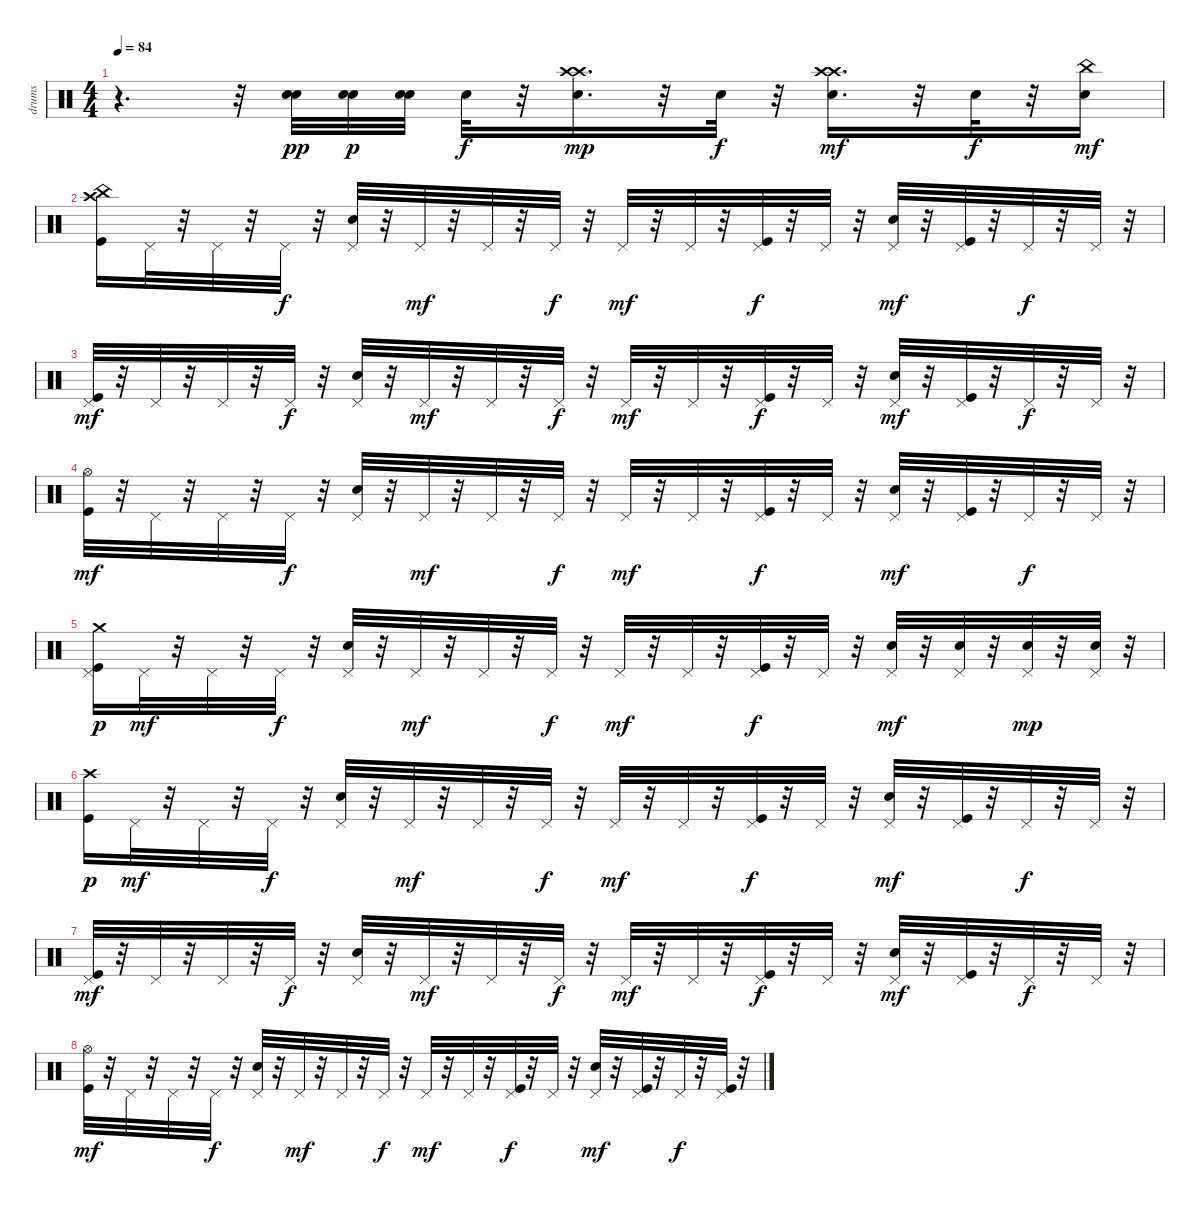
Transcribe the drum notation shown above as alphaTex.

\track ("drums" "drums") {instrument percussion}
\staff {score}
\articulation defaults
\ts (4 4)
\tempo 84
\clef neutral
\ks c
r.4{d dy mf} r.32 ("Snare (hit) 2" "Snare (hit) 2").32{dy pp} ("Snare (hit) 2" "Snare (hit) 2").32{dy p} ("Snare (hit) 2" "Snare (hit) 2").32 "Snare (hit) 2".32{dy f} r.32 ("Snare (hit) 2" "Crash high (hit)" "Crash high (hit)").16{d dy mp} r.32 "Snare (hit) 2".32{dy f} r.32 ("Snare (hit) 2" "Crash high (hit)" "Crash high (hit)").16{d dy mf} r.32 "Snare (hit) 2".32{dy f} r.32 ("Snare (hit) 2" "China (hit)").16{dy mf} |
("Kick (hit)" "Crash high (hit)" "China (hit)").16 "Pedal Hi-Hat (hit)".32 r.32 "Pedal Hi-Hat (hit)".32 r.32 "Pedal Hi-Hat (hit)".32{dy f} r.32 ("Snare (hit) 2" "Pedal Hi-Hat (hit)").32 r.32 "Pedal Hi-Hat (hit)".32{dy mf} r.32 "Pedal Hi-Hat (hit)".32 r.32 "Pedal Hi-Hat (hit)".32{dy f} r.32 "Pedal Hi-Hat (hit)".32{dy mf} r.32 "Pedal Hi-Hat (hit)".32 r.32 ("Kick (hit)" "Pedal Hi-Hat (hit)").32{dy f} r.32 "Pedal Hi-Hat (hit)".32 r.32 ("Snare (hit) 2" "Pedal Hi-Hat (hit)").32{dy mf} r.32 ("Kick (hit)" "Pedal Hi-Hat (hit)").32 r.32 "Pedal Hi-Hat (hit)".32{dy f} r.32 "Pedal Hi-Hat (hit)".32 r.32 |
("Kick (hit)" "Pedal Hi-Hat (hit)").32{dy mf} r.32 "Pedal Hi-Hat (hit)".32 r.32 "Pedal Hi-Hat (hit)".32 r.32 "Pedal Hi-Hat (hit)".32{dy f} r.32 ("Snare (hit) 2" "Pedal Hi-Hat (hit)").32 r.32 "Pedal Hi-Hat (hit)".32{dy mf} r.32 "Pedal Hi-Hat (hit)".32 r.32 "Pedal Hi-Hat (hit)".32{dy f} r.32 "Pedal Hi-Hat (hit)".32{dy mf} r.32 "Pedal Hi-Hat (hit)".32 r.32 ("Kick (hit)" "Pedal Hi-Hat (hit)").32{dy f} r.32 "Pedal Hi-Hat (hit)".32 r.32 ("Snare (hit) 2" "Pedal Hi-Hat (hit)").32{dy mf} r.32 ("Kick (hit)" "Pedal Hi-Hat (hit)").32 r.32 "Pedal Hi-Hat (hit)".32{dy f} r.32 "Pedal Hi-Hat (hit)".32 r.32 |
("Kick (hit)" "Hi-Hat (open)").32{dy mf} r.32 "Pedal Hi-Hat (hit)".32 r.32 "Pedal Hi-Hat (hit)".32 r.32 "Pedal Hi-Hat (hit)".32{dy f} r.32 ("Snare (hit) 2" "Pedal Hi-Hat (hit)").32 r.32 "Pedal Hi-Hat (hit)".32{dy mf} r.32 "Pedal Hi-Hat (hit)".32 r.32 "Pedal Hi-Hat (hit)".32{dy f} r.32 "Pedal Hi-Hat (hit)".32{dy mf} r.32 "Pedal Hi-Hat (hit)".32 r.32 ("Kick (hit)" "Pedal Hi-Hat (hit)").32{dy f} r.32 "Pedal Hi-Hat (hit)".32 r.32 ("Snare (hit) 2" "Pedal Hi-Hat (hit)").32{dy mf} r.32 ("Kick (hit)" "Pedal Hi-Hat (hit)").32 r.32 "Pedal Hi-Hat (hit)".32{dy f} r.32 "Pedal Hi-Hat (hit)".32 r.32 |
("Kick (hit)" "Pedal Hi-Hat (hit)" "Crash medium (hit)").16{dy p} "Pedal Hi-Hat (hit)".32{dy mf} r.32 "Pedal Hi-Hat (hit)".32 r.32 "Pedal Hi-Hat (hit)".32{dy f} r.32 ("Snare (hit) 2" "Pedal Hi-Hat (hit)").32 r.32 "Pedal Hi-Hat (hit)".32{dy mf} r.32 "Pedal Hi-Hat (hit)".32 r.32 "Pedal Hi-Hat (hit)".32{dy f} r.32 "Pedal Hi-Hat (hit)".32{dy mf} r.32 "Pedal Hi-Hat (hit)".32 r.32 ("Kick (hit)" "Pedal Hi-Hat (hit)").32{dy f} r.32 "Pedal Hi-Hat (hit)".32 r.32 ("Snare (hit) 2" "Pedal Hi-Hat (hit)").32{dy mf} r.32 ("Snare (hit) 2" "Pedal Hi-Hat (hit)").32 r.32 ("Snare (hit) 2" "Pedal Hi-Hat (hit)").32{dy mp} r.32 ("Snare (hit) 2" "Pedal Hi-Hat (hit)").32 r.32 |
("Kick (hit)" "Crash high (hit)").16{dy p} "Pedal Hi-Hat (hit)".32{dy mf} r.32 "Pedal Hi-Hat (hit)".32 r.32 "Pedal Hi-Hat (hit)".32{dy f} r.32 ("Snare (hit) 2" "Pedal Hi-Hat (hit)").32 r.32 "Pedal Hi-Hat (hit)".32{dy mf} r.32 "Pedal Hi-Hat (hit)".32 r.32 "Pedal Hi-Hat (hit)".32{dy f} r.32 "Pedal Hi-Hat (hit)".32{dy mf} r.32 "Pedal Hi-Hat (hit)".32 r.32 ("Kick (hit)" "Pedal Hi-Hat (hit)").32{dy f} r.32 "Pedal Hi-Hat (hit)".32 r.32 ("Snare (hit) 2" "Pedal Hi-Hat (hit)").32{dy mf} r.32 ("Kick (hit)" "Pedal Hi-Hat (hit)").32 r.32 "Pedal Hi-Hat (hit)".32{dy f} r.32 "Pedal Hi-Hat (hit)".32 r.32 |
("Kick (hit)" "Pedal Hi-Hat (hit)").32{dy mf} r.32 "Pedal Hi-Hat (hit)".32 r.32 "Pedal Hi-Hat (hit)".32 r.32 "Pedal Hi-Hat (hit)".32{dy f} r.32 ("Snare (hit) 2" "Pedal Hi-Hat (hit)").32 r.32 "Pedal Hi-Hat (hit)".32{dy mf} r.32 "Pedal Hi-Hat (hit)".32 r.32 "Pedal Hi-Hat (hit)".32{dy f} r.32 "Pedal Hi-Hat (hit)".32{dy mf} r.32 "Pedal Hi-Hat (hit)".32 r.32 ("Kick (hit)" "Pedal Hi-Hat (hit)").32{dy f} r.32 "Pedal Hi-Hat (hit)".32 r.32 ("Snare (hit) 2" "Pedal Hi-Hat (hit)").32{dy mf} r.32 ("Kick (hit)" "Pedal Hi-Hat (hit)").32 r.32 "Pedal Hi-Hat (hit)".32{dy f} r.32 "Pedal Hi-Hat (hit)".32 r.32 |
("Kick (hit)" "Hi-Hat (open)").32{dy mf} r.32 "Pedal Hi-Hat (hit)".32 r.32 "Pedal Hi-Hat (hit)".32 r.32 "Pedal Hi-Hat (hit)".32{dy f} r.32 ("Snare (hit) 2" "Pedal Hi-Hat (hit)").32 r.32 "Pedal Hi-Hat (hit)".32{dy mf} r.32 "Pedal Hi-Hat (hit)".32 r.32 "Pedal Hi-Hat (hit)".32{dy f} r.32 "Pedal Hi-Hat (hit)".32{dy mf} r.32 "Pedal Hi-Hat (hit)".32 r.32 ("Kick (hit)" "Pedal Hi-Hat (hit)").32{dy f} r.32 "Pedal Hi-Hat (hit)".32 r.32 ("Snare (hit) 2" "Pedal Hi-Hat (hit)").32{dy mf} r.32 ("Kick (hit)" "Pedal Hi-Hat (hit)").32 r.32 "Pedal Hi-Hat (hit)".32{dy f} r.32 ("Kick (hit)" "Pedal Hi-Hat (hit)").32 r.32
